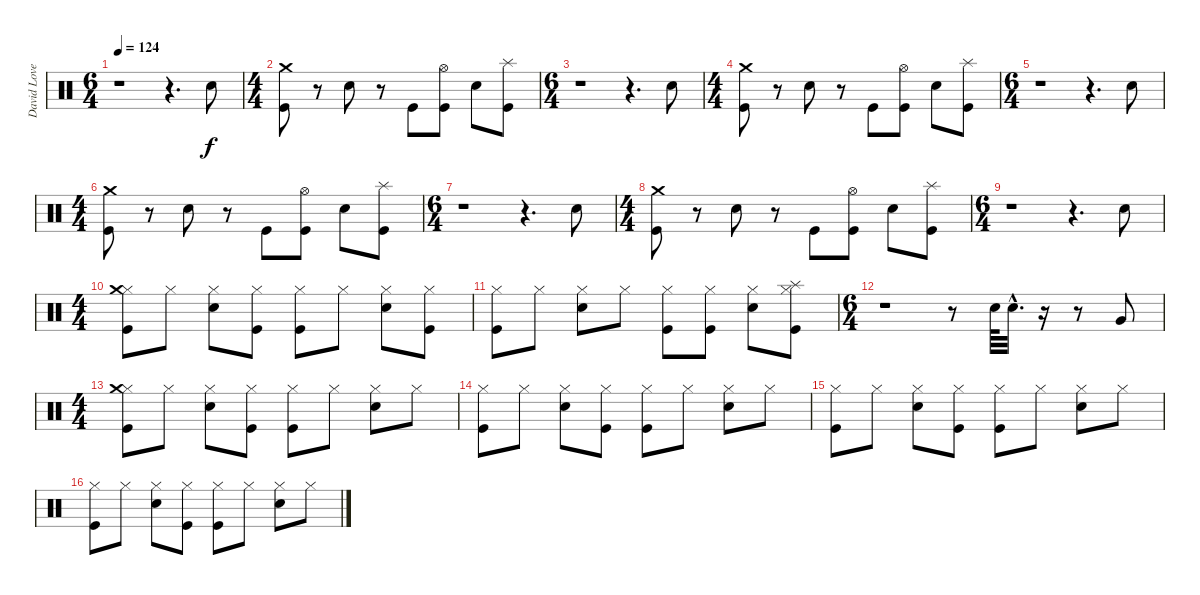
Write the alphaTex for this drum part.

\track ("David Lovering" "David Love") {instrument percussion}
\staff {score}
\articulation defaults
\ts (6 4)
\tempo 124
\clef neutral
\ks c
r.1{dy f} r.4{d} "Snare (hit) 2".8 |
\ts (4 4)
("Crash medium (hit)" "Kick (hit)").8 r.8 "Snare (hit) 2".8 r.8 "Kick (hit)".8 ("Hi-Hat (open)" "Kick (hit)").8 "Snare (hit) 2".8 ("Splash (hit)" "Kick (hit)").8 |
\ts (6 4)
r.1 r.4{d} "Snare (hit) 2".8 |
\ts (4 4)
("Crash medium (hit)" "Kick (hit)").8 r.8 "Snare (hit) 2".8 r.8 "Kick (hit)".8 ("Hi-Hat (open)" "Kick (hit)").8 "Snare (hit) 2".8 ("Splash (hit)" "Kick (hit)").8 |
\ts (6 4)
r.1 r.4{d} "Snare (hit) 2".8 |
\ts (4 4)
("Crash medium (hit)" "Kick (hit)").8 r.8 "Snare (hit) 2".8 r.8 "Kick (hit)".8 ("Hi-Hat (open)" "Kick (hit)").8 "Snare (hit) 2".8 ("Splash (hit)" "Kick (hit)").8 |
\ts (6 4)
r.1 r.4{d} "Snare (hit) 2".8 |
\ts (4 4)
("Crash medium (hit)" "Kick (hit)").8 r.8 "Snare (hit) 2".8 r.8 "Kick (hit)".8 ("Hi-Hat (open)" "Kick (hit)").8 "Snare (hit) 2".8 ("Splash (hit)" "Kick (hit)").8 |
\ts (6 4)
r.1 r.4{d} "Snare (hit) 2".8 |
\ts (4 4)
("Hi-Hat (closed)" "Crash medium (hit)" "Kick (hit)").8 "Hi-Hat (closed)".8 ("Hi-Hat (closed)" "Snare (hit) 2").8 ("Hi-Hat (closed)" "Kick (hit)").8 ("Hi-Hat (closed)" "Kick (hit)").8 "Hi-Hat (closed)".8 ("Hi-Hat (closed)" "Snare (hit) 2").8 ("Hi-Hat (closed)" "Kick (hit)").8 |
("Hi-Hat (closed)" "Kick (hit)").8 "Hi-Hat (closed)".8 ("Hi-Hat (closed)" "Snare (hit) 2").8 "Hi-Hat (closed)".8 ("Hi-Hat (closed)" "Kick (hit)").8 ("Hi-Hat (closed)" "Kick (hit)").8 ("Hi-Hat (closed)" "Snare (hit) 2").8 ("Hi-Hat (closed)" "Splash (hit)" "Kick (hit)").8 |
\ts (6 4)
r.1 r.8 "Snare (hit) 2".64 "Snare (hit) 2"{hac}.32{d} r.16 r.8 "Very Low Tom (hit)".8 |
\ts (4 4)
\section ("" "")
("Hi-Hat (closed)" "Crash medium (hit)" "Kick (hit)").8 "Hi-Hat (closed)".8 ("Hi-Hat (closed)" "Snare (hit) 2").8 ("Hi-Hat (closed)" "Kick (hit)").8 ("Hi-Hat (closed)" "Kick (hit)").8 "Hi-Hat (closed)".8 ("Hi-Hat (closed)" "Snare (hit) 2").8 "Hi-Hat (closed)".8 |
("Hi-Hat (closed)" "Kick (hit)").8 "Hi-Hat (closed)".8 ("Hi-Hat (closed)" "Snare (hit) 2").8 ("Hi-Hat (closed)" "Kick (hit)").8 ("Hi-Hat (closed)" "Kick (hit)").8 "Hi-Hat (closed)".8 ("Hi-Hat (closed)" "Snare (hit) 2").8 "Hi-Hat (closed)".8 |
("Hi-Hat (closed)" "Kick (hit)").8 "Hi-Hat (closed)".8 ("Hi-Hat (closed)" "Snare (hit) 2").8 ("Hi-Hat (closed)" "Kick (hit)").8 ("Hi-Hat (closed)" "Kick (hit)").8 "Hi-Hat (closed)".8 ("Hi-Hat (closed)" "Snare (hit) 2").8 "Hi-Hat (closed)".8 |
("Hi-Hat (closed)" "Kick (hit)").8 "Hi-Hat (closed)".8 ("Hi-Hat (closed)" "Snare (hit) 2").8 ("Hi-Hat (closed)" "Kick (hit)").8 ("Hi-Hat (closed)" "Kick (hit)").8 "Hi-Hat (closed)".8 ("Hi-Hat (closed)" "Snare (hit) 2").8 "Hi-Hat (closed)".8
